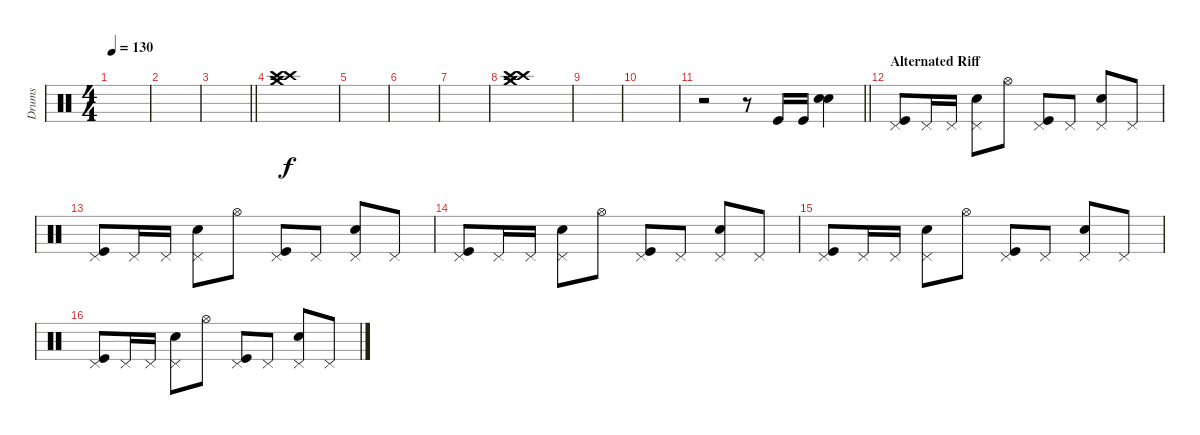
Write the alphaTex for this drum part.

\track ("Drums" "Drums") {instrument percussion}
\staff {score}
\articulation defaults
\ts (4 4)
\tempo 130
\clef neutral
\ks c
|
|
\barLineRight lightlight
|
("Crash high (hit)" "Crash high (hit)" "Crash medium (hit)" "Crash medium (hit)").1 |
|
|
|
("Crash high (hit)" "Crash high (hit)" "Crash medium (hit)" "Crash medium (hit)").1 |
|
|
\barLineRight lightlight
r.2 r.8 "Kick (hit)".16 "Kick (hit)".16 ("Snare (hit) 2" "Snare (hit) 2").4 |
\section ("" "Alternated Riff")
("Pedal Hi-Hat (hit)" "Kick (hit)").8 "Pedal Hi-Hat (hit)".16 "Pedal Hi-Hat (hit)".16 ("Pedal Hi-Hat (hit)" "Snare (hit) 2").8 "Hi-Hat (open)".8 ("Pedal Hi-Hat (hit)" "Kick (hit)").8 "Pedal Hi-Hat (hit)".8 ("Pedal Hi-Hat (hit)" "Snare (hit) 2").8 "Pedal Hi-Hat (hit)".8 |
("Pedal Hi-Hat (hit)" "Kick (hit)").8 "Pedal Hi-Hat (hit)".16 "Pedal Hi-Hat (hit)".16 ("Pedal Hi-Hat (hit)" "Snare (hit) 2").8 "Hi-Hat (open)".8 ("Pedal Hi-Hat (hit)" "Kick (hit)").8 "Pedal Hi-Hat (hit)".8 ("Pedal Hi-Hat (hit)" "Snare (hit) 2").8 "Pedal Hi-Hat (hit)".8 |
("Pedal Hi-Hat (hit)" "Kick (hit)").8 "Pedal Hi-Hat (hit)".16 "Pedal Hi-Hat (hit)".16 ("Pedal Hi-Hat (hit)" "Snare (hit) 2").8 "Hi-Hat (open)".8 ("Pedal Hi-Hat (hit)" "Kick (hit)").8 "Pedal Hi-Hat (hit)".8 ("Pedal Hi-Hat (hit)" "Snare (hit) 2").8 "Pedal Hi-Hat (hit)".8 |
("Pedal Hi-Hat (hit)" "Kick (hit)").8 "Pedal Hi-Hat (hit)".16 "Pedal Hi-Hat (hit)".16 ("Pedal Hi-Hat (hit)" "Snare (hit) 2").8 "Hi-Hat (open)".8 ("Pedal Hi-Hat (hit)" "Kick (hit)").8 "Pedal Hi-Hat (hit)".8 ("Pedal Hi-Hat (hit)" "Snare (hit) 2").8 "Pedal Hi-Hat (hit)".8 |
("Pedal Hi-Hat (hit)" "Kick (hit)").8 "Pedal Hi-Hat (hit)".16 "Pedal Hi-Hat (hit)".16 ("Pedal Hi-Hat (hit)" "Snare (hit) 2").8 "Hi-Hat (open)".8 ("Pedal Hi-Hat (hit)" "Kick (hit)").8 "Pedal Hi-Hat (hit)".8 ("Pedal Hi-Hat (hit)" "Snare (hit) 2").8 "Pedal Hi-Hat (hit)".8
